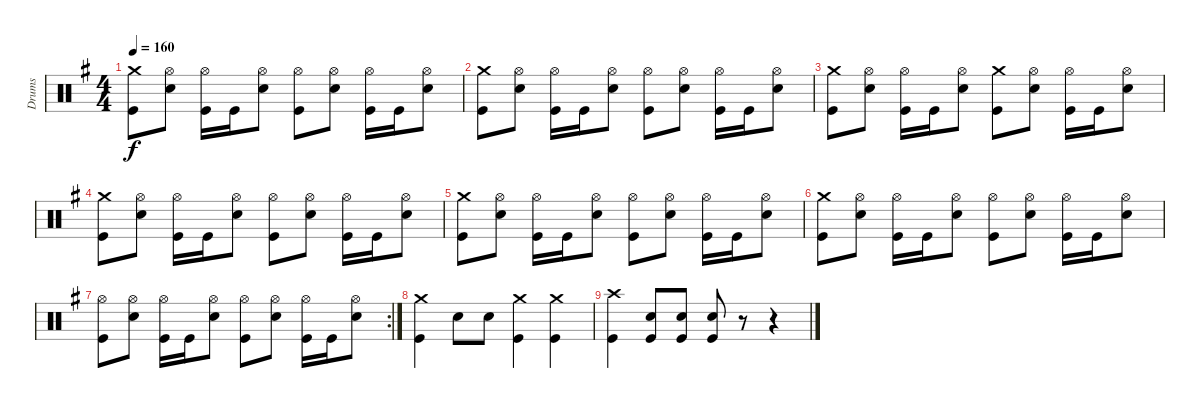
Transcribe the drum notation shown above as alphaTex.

\track ("Drums" "Drums") {instrument percussion}
\staff {score}
\articulation defaults
\ts (4 4)
\tempo 160
\clef neutral
\ks eminor
("Crash medium (hit)" "Kick (hit)").8{dy f} ("Hi-Hat (open)" "Snare (hit) 2").8 ("Hi-Hat (open)" "Kick (hit)").16 "Kick (hit)".16 ("Hi-Hat (open)" "Snare (hit) 2").8 ("Hi-Hat (open)" "Kick (hit)").8 ("Hi-Hat (open)" "Snare (hit) 2").8 ("Hi-Hat (open)" "Kick (hit)").16 "Kick (hit)".16 ("Hi-Hat (open)" "Snare (hit) 2").8 |
("Crash medium (hit)" "Kick (hit)").8 ("Hi-Hat (open)" "Snare (hit) 2").8 ("Hi-Hat (open)" "Kick (hit)").16 "Kick (hit)".16 ("Hi-Hat (open)" "Snare (hit) 2").8 ("Hi-Hat (open)" "Kick (hit)").8 ("Hi-Hat (open)" "Snare (hit) 2").8 ("Hi-Hat (open)" "Kick (hit)").16 "Kick (hit)".16 ("Hi-Hat (open)" "Snare (hit) 2").8 |
("Crash medium (hit)" "Kick (hit)").8 ("Hi-Hat (open)" "Snare (hit) 2").8 ("Hi-Hat (open)" "Kick (hit)").16 "Kick (hit)".16 ("Hi-Hat (open)" "Snare (hit) 2").8 ("Crash medium (hit)" "Kick (hit)").8 ("Hi-Hat (open)" "Snare (hit) 2").8 ("Hi-Hat (open)" "Kick (hit)").16 "Kick (hit)".16 ("Hi-Hat (open)" "Snare (hit) 2").8 |
("Crash medium (hit)" "Kick (hit)").8 ("Hi-Hat (open)" "Snare (hit) 2").8 ("Hi-Hat (open)" "Kick (hit)").16 "Kick (hit)".16 ("Hi-Hat (open)" "Snare (hit) 2").8 ("Hi-Hat (open)" "Kick (hit)").8 ("Hi-Hat (open)" "Snare (hit) 2").8 ("Hi-Hat (open)" "Kick (hit)").16 "Kick (hit)".16 ("Hi-Hat (open)" "Snare (hit) 2").8 |
("Crash medium (hit)" "Kick (hit)").8 ("Hi-Hat (open)" "Snare (hit) 2").8 ("Hi-Hat (open)" "Kick (hit)").16 "Kick (hit)".16 ("Hi-Hat (open)" "Snare (hit) 2").8 ("Hi-Hat (open)" "Kick (hit)").8 ("Hi-Hat (open)" "Snare (hit) 2").8 ("Hi-Hat (open)" "Kick (hit)").16 "Kick (hit)".16 ("Hi-Hat (open)" "Snare (hit) 2").8 |
("Crash medium (hit)" "Kick (hit)").8 ("Hi-Hat (open)" "Snare (hit) 2").8 ("Hi-Hat (open)" "Kick (hit)").16 "Kick (hit)".16 ("Hi-Hat (open)" "Snare (hit) 2").8 ("Hi-Hat (open)" "Kick (hit)").8 ("Hi-Hat (open)" "Snare (hit) 2").8 ("Hi-Hat (open)" "Kick (hit)").16 "Kick (hit)".16 ("Hi-Hat (open)" "Snare (hit) 2").8 |
\rc 2
("Hi-Hat (open)" "Kick (hit)").8 ("Hi-Hat (open)" "Snare (hit) 2").8 ("Hi-Hat (open)" "Kick (hit)").16 "Kick (hit)".16 ("Hi-Hat (open)" "Snare (hit) 2").8 ("Hi-Hat (open)" "Kick (hit)").8 ("Hi-Hat (open)" "Snare (hit) 2").8 ("Hi-Hat (open)" "Kick (hit)").16 "Kick (hit)".16 ("Hi-Hat (open)" "Snare (hit) 2").8 |
("Crash medium (hit)" "Kick (hit)").4 "Snare (hit) 2".8 "Snare (hit) 2".8 ("Crash medium (hit)" "Kick (hit)").4 ("Crash medium (hit)" "Kick (hit)").4 |
("Crash high (hit)" "Kick (hit)").4 ("Snare (hit) 2" "Kick (hit)").8 ("Snare (hit) 2" "Kick (hit)").8 ("Snare (hit) 2" "Kick (hit)").8 r.8 r.4
